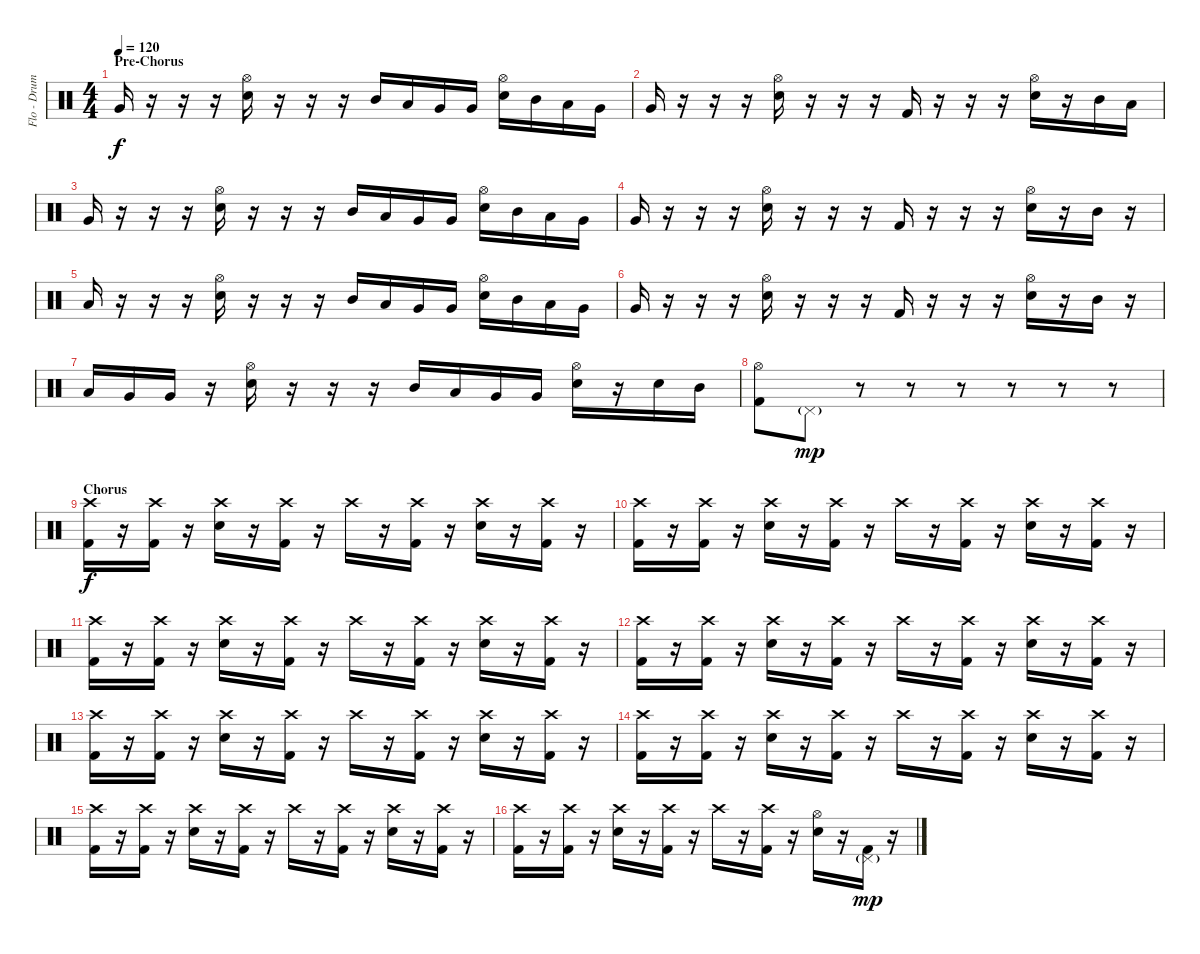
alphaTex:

\track ("Flo - Drums" "Flo - Drum") {instrument percussion}
\staff {score}
\articulation defaults
\ts (4 4)
\section ("" "Pre-Chorus")
\tempo 120
\clef neutral
\ks c "Very Low Tom (hit)".16{dy f}
r.16 r.16 r.16 ("Hi-Hat (open)" "Electric Snare (hit)").16 r.16 r.16 r.16 "Mid Tom (hit)".16 "Low Tom (hit)".16 "Very Low Tom (hit)".16 "Very Low Tom (hit)".16 ("Hi-Hat (open)" "Electric Snare (hit)").16 "Mid Tom (hit)".16 "Low Tom (hit)".16 "Very Low Tom (hit)".16 |
"Very Low Tom (hit)".16 r.16 r.16 r.16 ("Hi-Hat (open)" "Electric Snare (hit)").16 r.16 r.16 r.16 "Kick (hit) 2".16 r.16 r.16 r.16 ("Hi-Hat (open)" "Electric Snare (hit)").16 r.16 "Mid Tom (hit)".16 "Low Tom (hit)".16 |
"Very Low Tom (hit)".16 r.16 r.16 r.16 ("Hi-Hat (open)" "Electric Snare (hit)").16 r.16 r.16 r.16 "Mid Tom (hit)".16 "Low Tom (hit)".16 "Very Low Tom (hit)".16 "Very Low Tom (hit)".16 ("Hi-Hat (open)" "Electric Snare (hit)").16 "Mid Tom (hit)".16 "Low Tom (hit)".16 "Very Low Tom (hit)".16 |
"Very Low Tom (hit)".16 r.16 r.16 r.16 ("Hi-Hat (open)" "Electric Snare (hit)").16 r.16 r.16 r.16 "Kick (hit) 2".16 r.16 r.16 r.16 ("Hi-Hat (open)" "Electric Snare (hit)").16 r.16 "Mid Tom (hit)".16 r.16 |
"Low Tom (hit)".16 r.16 r.16 r.16 ("Hi-Hat (open)" "Electric Snare (hit)").16 r.16 r.16 r.16 "Mid Tom (hit)".16 "Low Tom (hit)".16 "Very Low Tom (hit)".16 "Very Low Tom (hit)".16 ("Hi-Hat (open)" "Electric Snare (hit)").16 "Mid Tom (hit)".16 "Low Tom (hit)".16 "Very Low Tom (hit)".16 |
"Very Low Tom (hit)".16 r.16 r.16 r.16 ("Hi-Hat (open)" "Electric Snare (hit)").16 r.16 r.16 r.16 "Kick (hit) 2".16 r.16 r.16 r.16 ("Hi-Hat (open)" "Electric Snare (hit)").16 r.16 "Mid Tom (hit)".16 r.16 |
"Low Tom (hit)".16 "Very Low Tom (hit)".16 "Very Low Tom (hit)".16 r.16 ("Hi-Hat (open)" "Electric Snare (hit)").16 r.16 r.16 r.16 "Mid Tom (hit)".16 "Low Tom (hit)".16 "Very Low Tom (hit)".16 "Very Low Tom (hit)".16 ("Hi-Hat (open)" "Electric Snare (hit)").16 r.16 "Electric Snare (hit)".16 "Mid Tom (hit)".16 |
("Hi-Hat (open)" "Kick (hit) 2").8 "Pedal Hi-Hat (hit)"{g}.8{dy mp} r.8 r.8 r.8 r.8 r.8 r.8 |
\section ("" "Chorus")
("Crash high (hit)" "Kick (hit) 2").16{dy f} r.16 ("Crash high (hit)" "Kick (hit) 2").16 r.16 ("Crash high (hit)" "Electric Snare (hit)").16 r.16 ("Crash high (hit)" "Kick (hit) 2").16 r.16 "Crash high (hit)".16 r.16 ("Crash high (hit)" "Kick (hit) 2").16 r.16 ("Crash high (hit)" "Electric Snare (hit)").16 r.16 ("Crash high (hit)" "Kick (hit) 2").16 r.16 |
("Crash high (hit)" "Kick (hit) 2").16 r.16 ("Crash high (hit)" "Kick (hit) 2").16 r.16 ("Crash high (hit)" "Electric Snare (hit)").16 r.16 ("Crash high (hit)" "Kick (hit) 2").16 r.16 "Crash high (hit)".16 r.16 ("Crash high (hit)" "Kick (hit) 2").16 r.16 ("Crash high (hit)" "Electric Snare (hit)").16 r.16 ("Crash high (hit)" "Kick (hit) 2").16 r.16 |
("Crash high (hit)" "Kick (hit) 2").16 r.16 ("Crash high (hit)" "Kick (hit) 2").16 r.16 ("Crash high (hit)" "Electric Snare (hit)").16 r.16 ("Crash high (hit)" "Kick (hit) 2").16 r.16 "Crash high (hit)".16 r.16 ("Crash high (hit)" "Kick (hit) 2").16 r.16 ("Crash high (hit)" "Electric Snare (hit)").16 r.16 ("Crash high (hit)" "Kick (hit) 2").16 r.16 |
("Crash high (hit)" "Kick (hit) 2").16 r.16 ("Crash high (hit)" "Kick (hit) 2").16 r.16 ("Crash high (hit)" "Electric Snare (hit)").16 r.16 ("Crash high (hit)" "Kick (hit) 2").16 r.16 "Crash high (hit)".16 r.16 ("Crash high (hit)" "Kick (hit) 2").16 r.16 ("Crash high (hit)" "Electric Snare (hit)").16 r.16 ("Crash high (hit)" "Kick (hit) 2").16 r.16 |
("Crash high (hit)" "Kick (hit) 2").16 r.16 ("Crash high (hit)" "Kick (hit) 2").16 r.16 ("Crash high (hit)" "Electric Snare (hit)").16 r.16 ("Crash high (hit)" "Kick (hit) 2").16 r.16 "Crash high (hit)".16 r.16 ("Crash high (hit)" "Kick (hit) 2").16 r.16 ("Crash high (hit)" "Electric Snare (hit)").16 r.16 ("Crash high (hit)" "Kick (hit) 2").16 r.16 |
("Crash high (hit)" "Kick (hit) 2").16 r.16 ("Crash high (hit)" "Kick (hit) 2").16 r.16 ("Crash high (hit)" "Electric Snare (hit)").16 r.16 ("Crash high (hit)" "Kick (hit) 2").16 r.16 "Crash high (hit)".16 r.16 ("Crash high (hit)" "Kick (hit) 2").16 r.16 ("Crash high (hit)" "Electric Snare (hit)").16 r.16 ("Crash high (hit)" "Kick (hit) 2").16 r.16 |
("Crash high (hit)" "Kick (hit) 2").16 r.16 ("Crash high (hit)" "Kick (hit) 2").16 r.16 ("Crash high (hit)" "Electric Snare (hit)").16 r.16 ("Crash high (hit)" "Kick (hit) 2").16 r.16 "Crash high (hit)".16 r.16 ("Crash high (hit)" "Kick (hit) 2").16 r.16 ("Crash high (hit)" "Electric Snare (hit)").16 r.16 ("Crash high (hit)" "Kick (hit) 2").16 r.16 |
("Crash high (hit)" "Kick (hit) 2").16 r.16 ("Crash high (hit)" "Kick (hit) 2").16 r.16 ("Crash high (hit)" "Electric Snare (hit)").16 r.16 ("Crash high (hit)" "Kick (hit) 2").16 r.16 "Crash high (hit)".16 r.16 ("Crash high (hit)" "Kick (hit) 2").16 r.16 ("Hi-Hat (open)" "Electric Snare (hit)").16 r.16 ("Pedal Hi-Hat (hit)"{g} "Kick (hit) 2").16{dy mp} r.16
